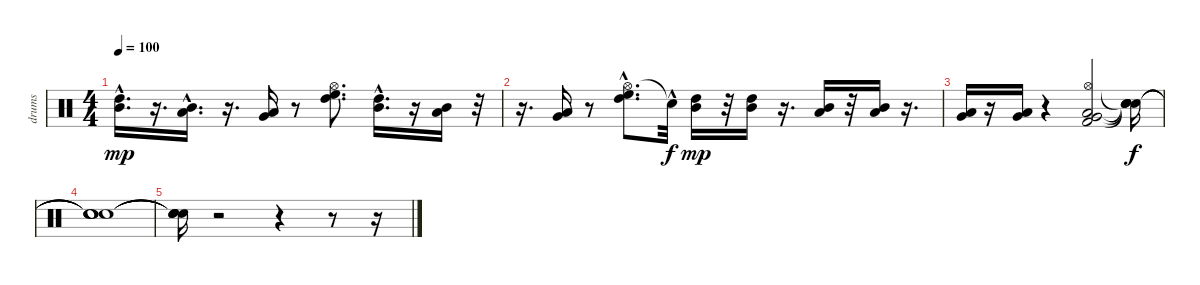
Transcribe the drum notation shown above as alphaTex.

\track ("drums" "drums") {instrument percussion}
\staff {score}
\articulation defaults
\ts (4 4)
\tempo 100
\clef neutral
\ks c
("Mid Tom (hit)"{hac} "High Tom (hit)"{hac}).16{d dy mp} r.16{d} ("Low Tom (hit)"{hac} "Mid Tom (hit)"{hac}).16{d} r.16{d} ("Very Low Tom (hit)" "Low Tom (hit)").16 r.8 ("Hi-Hat (open)" "High Tom (hit)" "High Floor Tom (hit)").8{d} ("Mid Tom (hit)"{hac} "High Tom (hit)"{hac}).16{d} r.16 ("Low Tom (hit)" "Mid Tom (hit)").16 r.32 |
r.16{d} ("Very Low Tom (hit)" "Low Tom (hit)").16 r.8 ("Hi-Hat (open)"{hac} "High Tom (hit)"{hac} "High Floor Tom (hit)"{hac}).8{d} "Snare (hit)"{hac t}.32{dy f} ("High Tom (hit)" "Mid Tom (hit)").16{dy mp} r.32 ("Mid Tom (hit)" "High Tom (hit)").16 r.16{d} ("Low Tom (hit)" "Mid Tom (hit)").16 r.32 ("Low Tom (hit)" "Mid Tom (hit)").16 r.16{d} |
("Very Low Tom (hit)" "Low Tom (hit)").16 r.16 ("Very Low Tom (hit)" "Low Tom (hit)").16 r.4 ("Kick (hit) 2" "Very Low Tom (hit)" "Low Floor Tom (hit)" "Hi-Hat (open)").2 ("Snare (hit)"{t} "Snare (hit)"{t} "Snare (hit)"{t} "Snare (hit)"{t}).16{dy f} |
("Snare (hit)"{t} "Snare (hit)"{t} "Snare (hit)"{t} "Snare (hit)"{t}).1 |
("Snare (hit)"{t} "Snare (hit)"{t} "Snare (hit)"{t} "Snare (hit)"{t}).16 r.2 r.4 r.8 r.16
